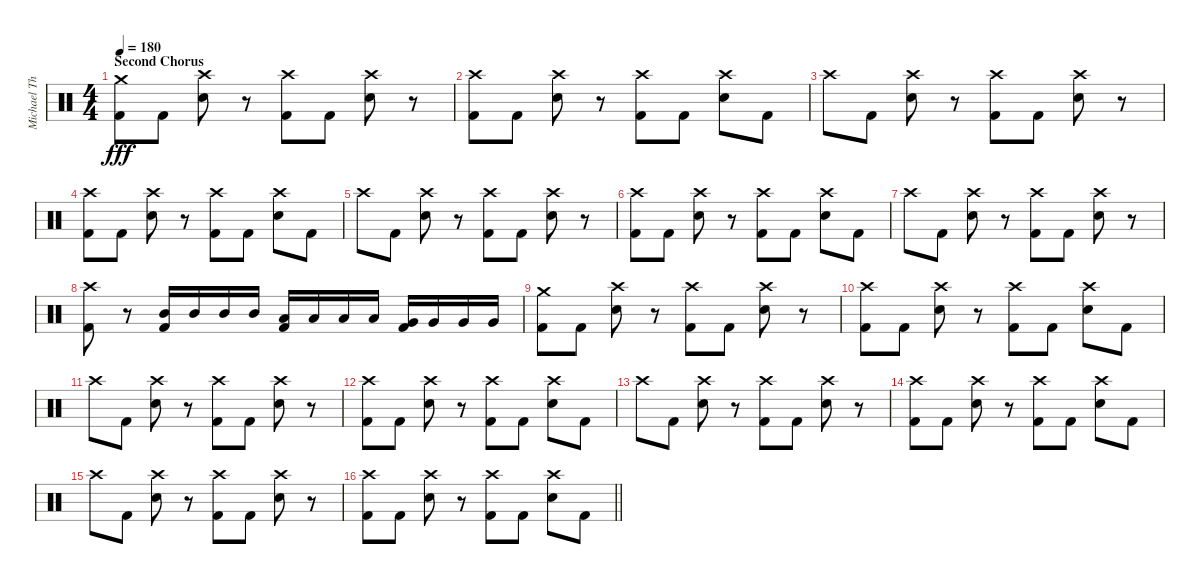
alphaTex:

\track ("Michael Thomas" "Michael Th") {instrument percussion}
\staff {score}
\articulation defaults
\ts (4 4)
\section ("" "Second Chorus")
\tempo 180
\clef neutral
\ks c
("Crash medium (hit)" "Kick (hit) 2").8{dy fff} "Kick (hit) 2".8 ("Crash high (hit)" "Electric Snare (hit)").8 r.8 ("Crash high (hit)" "Kick (hit) 2").8 "Kick (hit) 2".8 ("Crash high (hit)" "Electric Snare (hit)").8 r.8 |
("Crash high (hit)" "Kick (hit) 2").8 "Kick (hit) 2".8 ("Crash high (hit)" "Electric Snare (hit)").8 r.8 ("Crash high (hit)" "Kick (hit) 2").8 "Kick (hit) 2".8 ("Crash high (hit)" "Electric Snare (hit)").8 "Kick (hit) 2".8 |
"Crash high (hit)".8 "Kick (hit) 2".8 ("Crash high (hit)" "Electric Snare (hit)").8 r.8 ("Crash high (hit)" "Kick (hit) 2").8 "Kick (hit) 2".8 ("Crash high (hit)" "Electric Snare (hit)").8 r.8 |
("Crash high (hit)" "Kick (hit) 2").8 "Kick (hit) 2".8 ("Crash high (hit)" "Electric Snare (hit)").8 r.8 ("Crash high (hit)" "Kick (hit) 2").8 "Kick (hit) 2".8 ("Crash high (hit)" "Electric Snare (hit)").8 "Kick (hit) 2".8 |
"Crash high (hit)".8 "Kick (hit) 2".8 ("Crash high (hit)" "Electric Snare (hit)").8 r.8 ("Crash high (hit)" "Kick (hit) 2").8 "Kick (hit) 2".8 ("Crash high (hit)" "Electric Snare (hit)").8 r.8 |
("Crash high (hit)" "Kick (hit) 2").8 "Kick (hit) 2".8 ("Crash high (hit)" "Electric Snare (hit)").8 r.8 ("Crash high (hit)" "Kick (hit) 2").8 "Kick (hit) 2".8 ("Crash high (hit)" "Electric Snare (hit)").8 "Kick (hit) 2".8 |
"Crash high (hit)".8 "Kick (hit) 2".8 ("Crash high (hit)" "Electric Snare (hit)").8 r.8 ("Crash high (hit)" "Kick (hit) 2").8 "Kick (hit) 2".8 ("Crash high (hit)" "Electric Snare (hit)").8 r.8 |
("Crash high (hit)" "Kick (hit) 2").8 r.8 ("Mid Tom (hit)" "Kick (hit) 2").16 "Mid Tom (hit)".16 "Mid Tom (hit)".16 "Mid Tom (hit)".16 ("Low Tom (hit)" "Kick (hit) 2").16 "Low Tom (hit)".16 "Low Tom (hit)".16 "Low Tom (hit)".16 ("Very Low Tom (hit)" "Kick (hit) 2").16 "Very Low Tom (hit)".16 "Very Low Tom (hit)".16 "Very Low Tom (hit)".16 |
("Crash medium (hit)" "Kick (hit) 2").8 "Kick (hit) 2".8 ("Crash high (hit)" "Electric Snare (hit)").8 r.8 ("Crash high (hit)" "Kick (hit) 2").8 "Kick (hit) 2".8 ("Crash high (hit)" "Electric Snare (hit)").8 r.8 |
("Crash high (hit)" "Kick (hit) 2").8 "Kick (hit) 2".8 ("Crash high (hit)" "Electric Snare (hit)").8 r.8 ("Crash high (hit)" "Kick (hit) 2").8 "Kick (hit) 2".8 ("Crash high (hit)" "Electric Snare (hit)").8 "Kick (hit) 2".8 |
"Crash high (hit)".8 "Kick (hit) 2".8 ("Crash high (hit)" "Electric Snare (hit)").8 r.8 ("Crash high (hit)" "Kick (hit) 2").8 "Kick (hit) 2".8 ("Crash high (hit)" "Electric Snare (hit)").8 r.8 |
("Crash high (hit)" "Kick (hit) 2").8 "Kick (hit) 2".8 ("Crash high (hit)" "Electric Snare (hit)").8 r.8 ("Crash high (hit)" "Kick (hit) 2").8 "Kick (hit) 2".8 ("Crash high (hit)" "Electric Snare (hit)").8 "Kick (hit) 2".8 |
"Crash high (hit)".8 "Kick (hit) 2".8 ("Crash high (hit)" "Electric Snare (hit)").8 r.8 ("Crash high (hit)" "Kick (hit) 2").8 "Kick (hit) 2".8 ("Crash high (hit)" "Electric Snare (hit)").8 r.8 |
("Crash high (hit)" "Kick (hit) 2").8 "Kick (hit) 2".8 ("Crash high (hit)" "Electric Snare (hit)").8 r.8 ("Crash high (hit)" "Kick (hit) 2").8 "Kick (hit) 2".8 ("Crash high (hit)" "Electric Snare (hit)").8 "Kick (hit) 2".8 |
"Crash high (hit)".8 "Kick (hit) 2".8 ("Crash high (hit)" "Electric Snare (hit)").8 r.8 ("Crash high (hit)" "Kick (hit) 2").8 "Kick (hit) 2".8 ("Crash high (hit)" "Electric Snare (hit)").8 r.8 |
\barLineRight lightlight
("Crash high (hit)" "Kick (hit) 2").8 "Kick (hit) 2".8 ("Crash high (hit)" "Electric Snare (hit)").8 r.8 ("Crash high (hit)" "Kick (hit) 2").8 "Kick (hit) 2".8 ("Crash high (hit)" "Electric Snare (hit)").8 "Kick (hit) 2".8
